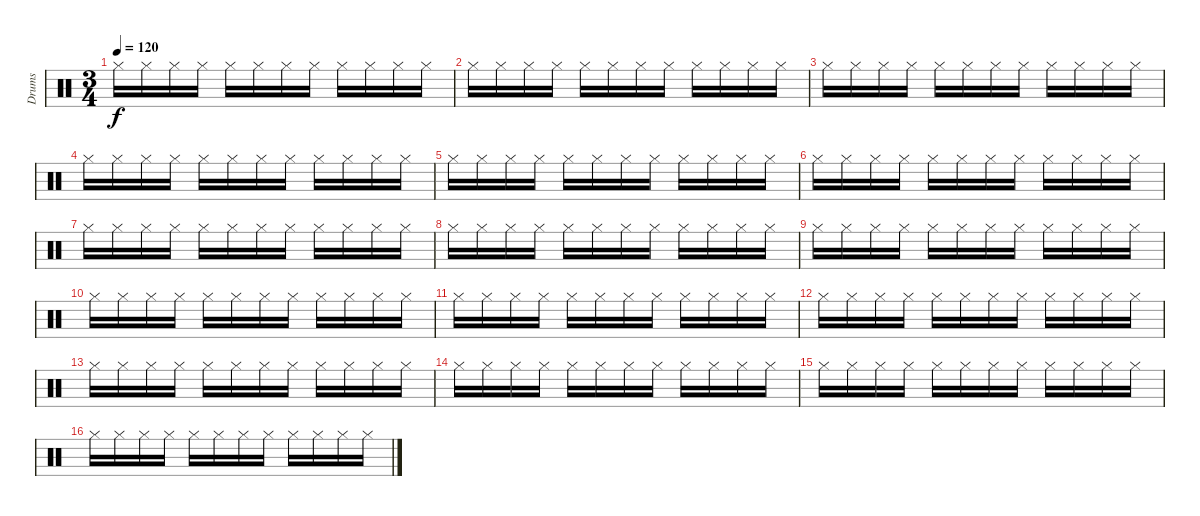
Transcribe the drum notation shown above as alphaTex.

\track ("Drums" "Drums") {instrument percussion}
\staff {score}
\articulation defaults
\ts (3 4)
\tempo 120
\clef neutral
\ks c "Hi-Hat (closed)".16{dy f} "Hi-Hat (closed)".16 "Hi-Hat (closed)".16 "Hi-Hat (closed)".16 "Hi-Hat (closed)".16 "Hi-Hat (closed)".16 "Hi-Hat (closed)".16 "Hi-Hat (closed)".16 "Hi-Hat (closed)".16 "Hi-Hat (closed)".16 "Hi-Hat (closed)".16 "Hi-Hat (closed)".16
|
"Hi-Hat (closed)".16 "Hi-Hat (closed)".16 "Hi-Hat (closed)".16 "Hi-Hat (closed)".16 "Hi-Hat (closed)".16 "Hi-Hat (closed)".16 "Hi-Hat (closed)".16 "Hi-Hat (closed)".16 "Hi-Hat (closed)".16 "Hi-Hat (closed)".16 "Hi-Hat (closed)".16 "Hi-Hat (closed)".16 |
"Hi-Hat (closed)".16 "Hi-Hat (closed)".16 "Hi-Hat (closed)".16 "Hi-Hat (closed)".16 "Hi-Hat (closed)".16 "Hi-Hat (closed)".16 "Hi-Hat (closed)".16 "Hi-Hat (closed)".16 "Hi-Hat (closed)".16 "Hi-Hat (closed)".16 "Hi-Hat (closed)".16 "Hi-Hat (closed)".16 |
"Hi-Hat (closed)".16 "Hi-Hat (closed)".16 "Hi-Hat (closed)".16 "Hi-Hat (closed)".16 "Hi-Hat (closed)".16 "Hi-Hat (closed)".16 "Hi-Hat (closed)".16 "Hi-Hat (closed)".16 "Hi-Hat (closed)".16 "Hi-Hat (closed)".16 "Hi-Hat (closed)".16 "Hi-Hat (closed)".16 |
"Hi-Hat (closed)".16 "Hi-Hat (closed)".16 "Hi-Hat (closed)".16 "Hi-Hat (closed)".16 "Hi-Hat (closed)".16 "Hi-Hat (closed)".16 "Hi-Hat (closed)".16 "Hi-Hat (closed)".16 "Hi-Hat (closed)".16 "Hi-Hat (closed)".16 "Hi-Hat (closed)".16 "Hi-Hat (closed)".16 |
"Hi-Hat (closed)".16 "Hi-Hat (closed)".16 "Hi-Hat (closed)".16 "Hi-Hat (closed)".16 "Hi-Hat (closed)".16 "Hi-Hat (closed)".16 "Hi-Hat (closed)".16 "Hi-Hat (closed)".16 "Hi-Hat (closed)".16 "Hi-Hat (closed)".16 "Hi-Hat (closed)".16 "Hi-Hat (closed)".16 |
"Hi-Hat (closed)".16 "Hi-Hat (closed)".16 "Hi-Hat (closed)".16 "Hi-Hat (closed)".16 "Hi-Hat (closed)".16 "Hi-Hat (closed)".16 "Hi-Hat (closed)".16 "Hi-Hat (closed)".16 "Hi-Hat (closed)".16 "Hi-Hat (closed)".16 "Hi-Hat (closed)".16 "Hi-Hat (closed)".16 |
"Hi-Hat (closed)".16 "Hi-Hat (closed)".16 "Hi-Hat (closed)".16 "Hi-Hat (closed)".16 "Hi-Hat (closed)".16 "Hi-Hat (closed)".16 "Hi-Hat (closed)".16 "Hi-Hat (closed)".16 "Hi-Hat (closed)".16 "Hi-Hat (closed)".16 "Hi-Hat (closed)".16 "Hi-Hat (closed)".16 |
"Hi-Hat (closed)".16 "Hi-Hat (closed)".16 "Hi-Hat (closed)".16 "Hi-Hat (closed)".16 "Hi-Hat (closed)".16 "Hi-Hat (closed)".16 "Hi-Hat (closed)".16 "Hi-Hat (closed)".16 "Hi-Hat (closed)".16 "Hi-Hat (closed)".16 "Hi-Hat (closed)".16 "Hi-Hat (closed)".16 |
"Hi-Hat (closed)".16 "Hi-Hat (closed)".16 "Hi-Hat (closed)".16 "Hi-Hat (closed)".16 "Hi-Hat (closed)".16 "Hi-Hat (closed)".16 "Hi-Hat (closed)".16 "Hi-Hat (closed)".16 "Hi-Hat (closed)".16 "Hi-Hat (closed)".16 "Hi-Hat (closed)".16 "Hi-Hat (closed)".16 |
"Hi-Hat (closed)".16 "Hi-Hat (closed)".16 "Hi-Hat (closed)".16 "Hi-Hat (closed)".16 "Hi-Hat (closed)".16 "Hi-Hat (closed)".16 "Hi-Hat (closed)".16 "Hi-Hat (closed)".16 "Hi-Hat (closed)".16 "Hi-Hat (closed)".16 "Hi-Hat (closed)".16 "Hi-Hat (closed)".16 |
"Hi-Hat (closed)".16 "Hi-Hat (closed)".16 "Hi-Hat (closed)".16 "Hi-Hat (closed)".16 "Hi-Hat (closed)".16 "Hi-Hat (closed)".16 "Hi-Hat (closed)".16 "Hi-Hat (closed)".16 "Hi-Hat (closed)".16 "Hi-Hat (closed)".16 "Hi-Hat (closed)".16 "Hi-Hat (closed)".16 |
"Hi-Hat (closed)".16 "Hi-Hat (closed)".16 "Hi-Hat (closed)".16 "Hi-Hat (closed)".16 "Hi-Hat (closed)".16 "Hi-Hat (closed)".16 "Hi-Hat (closed)".16 "Hi-Hat (closed)".16 "Hi-Hat (closed)".16 "Hi-Hat (closed)".16 "Hi-Hat (closed)".16 "Hi-Hat (closed)".16 |
"Hi-Hat (closed)".16 "Hi-Hat (closed)".16 "Hi-Hat (closed)".16 "Hi-Hat (closed)".16 "Hi-Hat (closed)".16 "Hi-Hat (closed)".16 "Hi-Hat (closed)".16 "Hi-Hat (closed)".16 "Hi-Hat (closed)".16 "Hi-Hat (closed)".16 "Hi-Hat (closed)".16 "Hi-Hat (closed)".16 |
"Hi-Hat (closed)".16 "Hi-Hat (closed)".16 "Hi-Hat (closed)".16 "Hi-Hat (closed)".16 "Hi-Hat (closed)".16 "Hi-Hat (closed)".16 "Hi-Hat (closed)".16 "Hi-Hat (closed)".16 "Hi-Hat (closed)".16 "Hi-Hat (closed)".16 "Hi-Hat (closed)".16 "Hi-Hat (closed)".16 |
"Hi-Hat (closed)".16 "Hi-Hat (closed)".16 "Hi-Hat (closed)".16 "Hi-Hat (closed)".16 "Hi-Hat (closed)".16 "Hi-Hat (closed)".16 "Hi-Hat (closed)".16 "Hi-Hat (closed)".16 "Hi-Hat (closed)".16 "Hi-Hat (closed)".16 "Hi-Hat (closed)".16 "Hi-Hat (closed)".16
